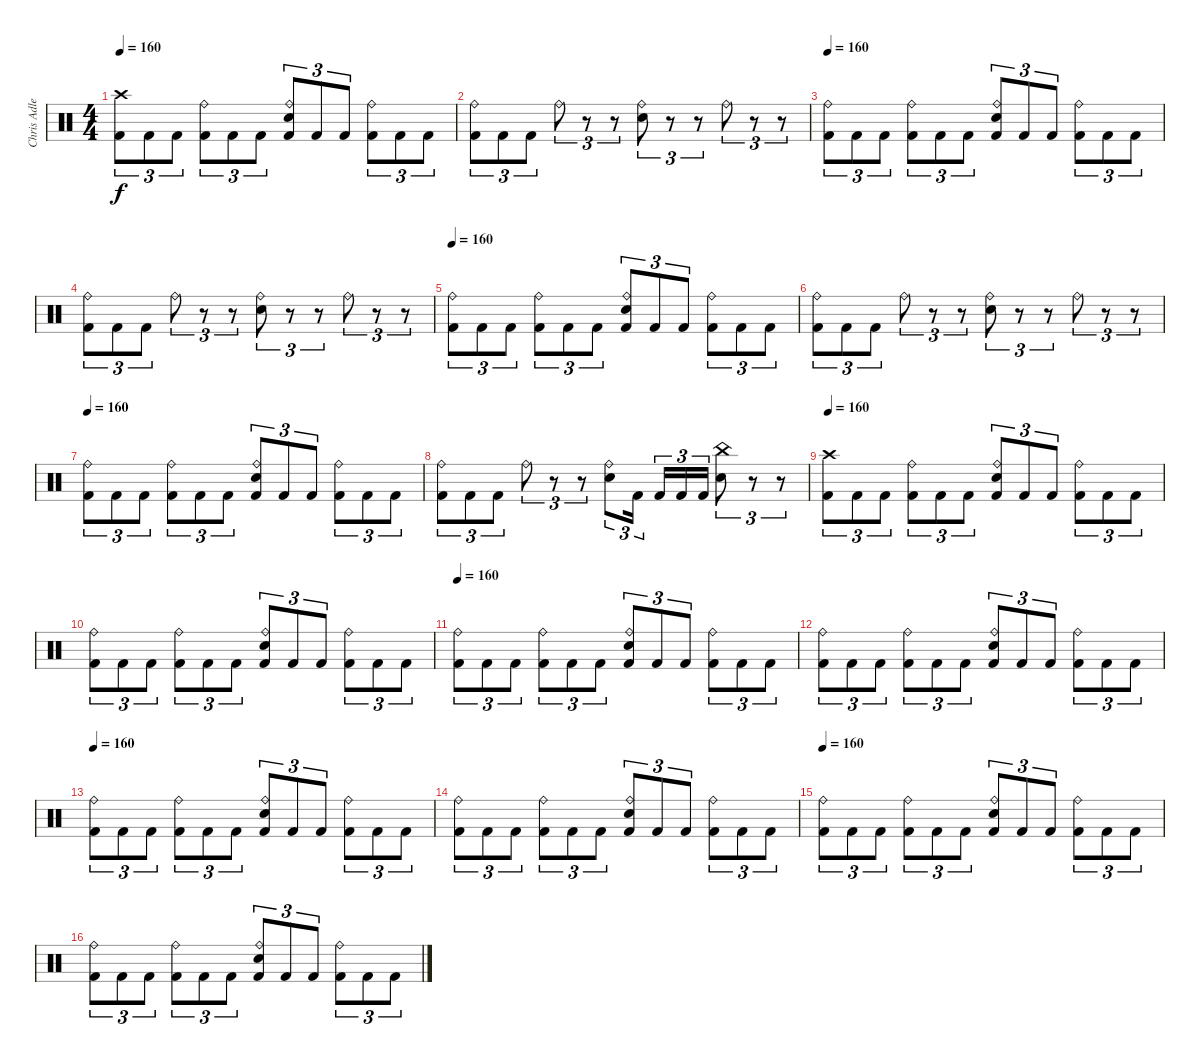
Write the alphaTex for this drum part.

\track ("Chris Adler" "Chris Adle") {instrument percussion}
\staff {score}
\articulation defaults
\ts (4 4)
\tempo 160
\clef neutral
\ks c
("Crash high (hit)" "Kick (hit) 2").8{tu (3 2) dy f} "Kick (hit) 2".8{tu (3 2)} "Kick (hit) 2".8{tu (3 2)} ("Ride (bell)" "Kick (hit) 2").8{tu (3 2)} "Kick (hit) 2".8{tu (3 2)} "Kick (hit) 2".8{tu (3 2)} ("Ride (bell)" "Electric Snare (hit)" "Kick (hit) 2").8{tu (3 2)} "Kick (hit) 2".8{tu (3 2)} "Kick (hit) 2".8{tu (3 2)} ("Ride (bell)" "Kick (hit) 2").8{tu (3 2)} "Kick (hit) 2".8{tu (3 2)} "Kick (hit) 2".8{tu (3 2)} |
("Ride (bell)" "Kick (hit) 2").8{tu (3 2)} "Kick (hit) 2".8{tu (3 2)} "Kick (hit) 2".8{tu (3 2)} "Ride (bell)".8{tu (3 2)} r.8{tu (3 2)} r.8{tu (3 2)} ("Ride (bell)" "Electric Snare (hit)").8{tu (3 2)} r.8{tu (3 2)} r.8{tu (3 2)} "Ride (bell)".8{tu (3 2)} r.8{tu (3 2)} r.8{tu (3 2)} |
\tempo 160
("Ride (bell)" "Kick (hit) 2").8{tu (3 2)} "Kick (hit) 2".8{tu (3 2)} "Kick (hit) 2".8{tu (3 2)} ("Ride (bell)" "Kick (hit) 2").8{tu (3 2)} "Kick (hit) 2".8{tu (3 2)} "Kick (hit) 2".8{tu (3 2)} ("Ride (bell)" "Electric Snare (hit)" "Kick (hit) 2").8{tu (3 2)} "Kick (hit) 2".8{tu (3 2)} "Kick (hit) 2".8{tu (3 2)} ("Ride (bell)" "Kick (hit) 2").8{tu (3 2)} "Kick (hit) 2".8{tu (3 2)} "Kick (hit) 2".8{tu (3 2)} |
("Ride (bell)" "Kick (hit) 2").8{tu (3 2)} "Kick (hit) 2".8{tu (3 2)} "Kick (hit) 2".8{tu (3 2)} "Ride (bell)".8{tu (3 2)} r.8{tu (3 2)} r.8{tu (3 2)} ("Ride (bell)" "Electric Snare (hit)").8{tu (3 2)} r.8{tu (3 2)} r.8{tu (3 2)} "Ride (bell)".8{tu (3 2)} r.8{tu (3 2)} r.8{tu (3 2)} |
\tempo 160
("Ride (bell)" "Kick (hit) 2").8{tu (3 2)} "Kick (hit) 2".8{tu (3 2)} "Kick (hit) 2".8{tu (3 2)} ("Ride (bell)" "Kick (hit) 2").8{tu (3 2)} "Kick (hit) 2".8{tu (3 2)} "Kick (hit) 2".8{tu (3 2)} ("Ride (bell)" "Electric Snare (hit)" "Kick (hit) 2").8{tu (3 2)} "Kick (hit) 2".8{tu (3 2)} "Kick (hit) 2".8{tu (3 2)} ("Ride (bell)" "Kick (hit) 2").8{tu (3 2)} "Kick (hit) 2".8{tu (3 2)} "Kick (hit) 2".8{tu (3 2)} |
("Ride (bell)" "Kick (hit) 2").8{tu (3 2)} "Kick (hit) 2".8{tu (3 2)} "Kick (hit) 2".8{tu (3 2)} "Ride (bell)".8{tu (3 2)} r.8{tu (3 2)} r.8{tu (3 2)} ("Ride (bell)" "Electric Snare (hit)").8{tu (3 2)} r.8{tu (3 2)} r.8{tu (3 2)} "Ride (bell)".8{tu (3 2)} r.8{tu (3 2)} r.8{tu (3 2)} |
\tempo 160
("Ride (bell)" "Kick (hit) 2").8{tu (3 2)} "Kick (hit) 2".8{tu (3 2)} "Kick (hit) 2".8{tu (3 2)} ("Ride (bell)" "Kick (hit) 2").8{tu (3 2)} "Kick (hit) 2".8{tu (3 2)} "Kick (hit) 2".8{tu (3 2)} ("Ride (bell)" "Electric Snare (hit)" "Kick (hit) 2").8{tu (3 2)} "Kick (hit) 2".8{tu (3 2)} "Kick (hit) 2".8{tu (3 2)} ("Ride (bell)" "Kick (hit) 2").8{tu (3 2)} "Kick (hit) 2".8{tu (3 2)} "Kick (hit) 2".8{tu (3 2)} |
("Ride (bell)" "Kick (hit) 2").8{tu (3 2)} "Kick (hit) 2".8{tu (3 2)} "Kick (hit) 2".8{tu (3 2)} "Ride (bell)".8{tu (3 2)} r.8{tu (3 2)} r.8{tu (3 2)} ("Ride (bell)" "Electric Snare (hit)").8{tu (3 2)} "Kick (hit) 2".16{tu (3 2) beam splitsecondary} "Kick (hit) 2".16{tu (3 2)} "Kick (hit) 2".16{tu (3 2)} "Kick (hit) 2".16{tu (3 2)} ("China (hit)" "Electric Snare (hit)").8{tu (3 2)} r.8{tu (3 2)} r.8{tu (3 2)} |
\tempo 160
("Crash high (hit)" "Kick (hit) 2").8{tu (3 2)} "Kick (hit) 2".8{tu (3 2)} "Kick (hit) 2".8{tu (3 2)} ("Ride (bell)" "Kick (hit) 2").8{tu (3 2)} "Kick (hit) 2".8{tu (3 2)} "Kick (hit) 2".8{tu (3 2)} ("Ride (bell)" "Electric Snare (hit)" "Kick (hit) 2").8{tu (3 2)} "Kick (hit) 2".8{tu (3 2)} "Kick (hit) 2".8{tu (3 2)} ("Ride (bell)" "Kick (hit) 2").8{tu (3 2)} "Kick (hit) 2".8{tu (3 2)} "Kick (hit) 2".8{tu (3 2)} |
("Ride (bell)" "Kick (hit) 2").8{tu (3 2)} "Kick (hit) 2".8{tu (3 2)} "Kick (hit) 2".8{tu (3 2)} ("Ride (bell)" "Kick (hit) 2").8{tu (3 2)} "Kick (hit) 2".8{tu (3 2)} "Kick (hit) 2".8{tu (3 2)} ("Ride (bell)" "Electric Snare (hit)" "Kick (hit) 2").8{tu (3 2)} "Kick (hit) 2".8{tu (3 2)} "Kick (hit) 2".8{tu (3 2)} ("Ride (bell)" "Kick (hit) 2").8{tu (3 2)} "Kick (hit) 2".8{tu (3 2)} "Kick (hit) 2".8{tu (3 2)} |
\tempo 160
("Ride (bell)" "Kick (hit) 2").8{tu (3 2)} "Kick (hit) 2".8{tu (3 2)} "Kick (hit) 2".8{tu (3 2)} ("Ride (bell)" "Kick (hit) 2").8{tu (3 2)} "Kick (hit) 2".8{tu (3 2)} "Kick (hit) 2".8{tu (3 2)} ("Ride (bell)" "Electric Snare (hit)" "Kick (hit) 2").8{tu (3 2)} "Kick (hit) 2".8{tu (3 2)} "Kick (hit) 2".8{tu (3 2)} ("Ride (bell)" "Kick (hit) 2").8{tu (3 2)} "Kick (hit) 2".8{tu (3 2)} "Kick (hit) 2".8{tu (3 2)} |
("Ride (bell)" "Kick (hit) 2").8{tu (3 2)} "Kick (hit) 2".8{tu (3 2)} "Kick (hit) 2".8{tu (3 2)} ("Ride (bell)" "Kick (hit) 2").8{tu (3 2)} "Kick (hit) 2".8{tu (3 2)} "Kick (hit) 2".8{tu (3 2)} ("Ride (bell)" "Electric Snare (hit)" "Kick (hit) 2").8{tu (3 2)} "Kick (hit) 2".8{tu (3 2)} "Kick (hit) 2".8{tu (3 2)} ("Ride (bell)" "Kick (hit) 2").8{tu (3 2)} "Kick (hit) 2".8{tu (3 2)} "Kick (hit) 2".8{tu (3 2)} |
\tempo 160
("Ride (bell)" "Kick (hit) 2").8{tu (3 2)} "Kick (hit) 2".8{tu (3 2)} "Kick (hit) 2".8{tu (3 2)} ("Ride (bell)" "Kick (hit) 2").8{tu (3 2)} "Kick (hit) 2".8{tu (3 2)} "Kick (hit) 2".8{tu (3 2)} ("Ride (bell)" "Electric Snare (hit)" "Kick (hit) 2").8{tu (3 2)} "Kick (hit) 2".8{tu (3 2)} "Kick (hit) 2".8{tu (3 2)} ("Ride (bell)" "Kick (hit) 2").8{tu (3 2)} "Kick (hit) 2".8{tu (3 2)} "Kick (hit) 2".8{tu (3 2)} |
("Ride (bell)" "Kick (hit) 2").8{tu (3 2)} "Kick (hit) 2".8{tu (3 2)} "Kick (hit) 2".8{tu (3 2)} ("Ride (bell)" "Kick (hit) 2").8{tu (3 2)} "Kick (hit) 2".8{tu (3 2)} "Kick (hit) 2".8{tu (3 2)} ("Ride (bell)" "Electric Snare (hit)" "Kick (hit) 2").8{tu (3 2)} "Kick (hit) 2".8{tu (3 2)} "Kick (hit) 2".8{tu (3 2)} ("Ride (bell)" "Kick (hit) 2").8{tu (3 2)} "Kick (hit) 2".8{tu (3 2)} "Kick (hit) 2".8{tu (3 2)} |
\tempo 160
("Ride (bell)" "Kick (hit) 2").8{tu (3 2)} "Kick (hit) 2".8{tu (3 2)} "Kick (hit) 2".8{tu (3 2)} ("Ride (bell)" "Kick (hit) 2").8{tu (3 2)} "Kick (hit) 2".8{tu (3 2)} "Kick (hit) 2".8{tu (3 2)} ("Ride (bell)" "Electric Snare (hit)" "Kick (hit) 2").8{tu (3 2)} "Kick (hit) 2".8{tu (3 2)} "Kick (hit) 2".8{tu (3 2)} ("Ride (bell)" "Kick (hit) 2").8{tu (3 2)} "Kick (hit) 2".8{tu (3 2)} "Kick (hit) 2".8{tu (3 2)} |
("Ride (bell)" "Kick (hit) 2").8{tu (3 2)} "Kick (hit) 2".8{tu (3 2)} "Kick (hit) 2".8{tu (3 2)} ("Ride (bell)" "Kick (hit) 2").8{tu (3 2)} "Kick (hit) 2".8{tu (3 2)} "Kick (hit) 2".8{tu (3 2)} ("Ride (bell)" "Electric Snare (hit)" "Kick (hit) 2").8{tu (3 2)} "Kick (hit) 2".8{tu (3 2)} "Kick (hit) 2".8{tu (3 2)} ("Ride (bell)" "Kick (hit) 2").8{tu (3 2)} "Kick (hit) 2".8{tu (3 2)} "Kick (hit) 2".8{tu (3 2)}
